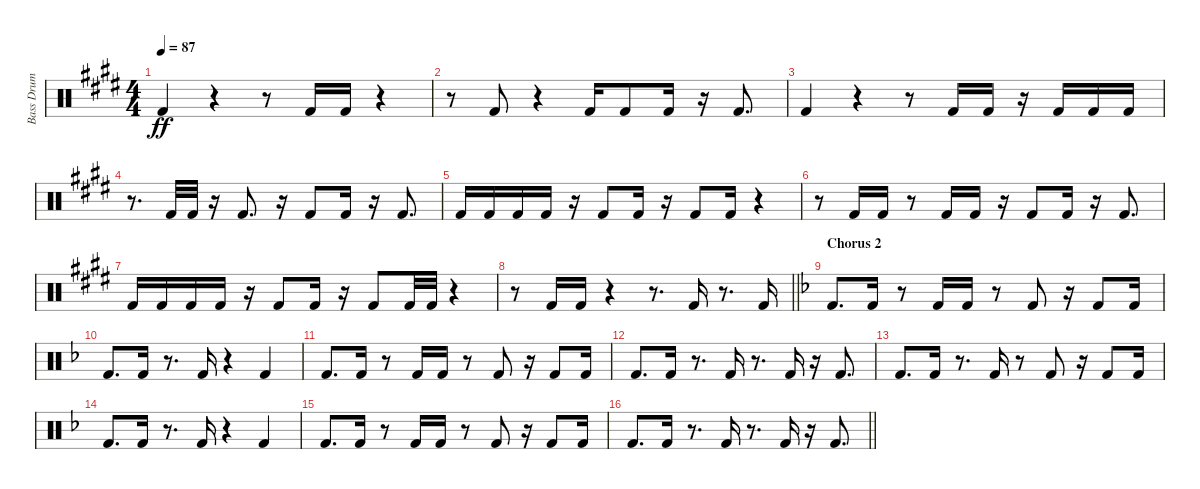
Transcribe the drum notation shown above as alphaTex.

\track ("Bass Drum" "Bass Drum") {instrument percussion}
\staff {score}
\articulation defaults
\ts (4 4)
\tempo 87
\clef neutral
\ks c#minor "Kick (hit) 2".4{dy ff}
r.4 r.8 "Kick (hit) 2".16 "Kick (hit) 2".16 r.4 |
r.8 "Kick (hit) 2".8 r.4 "Kick (hit) 2".16 "Kick (hit) 2".8 "Kick (hit) 2".16 r.16 "Kick (hit) 2".8{d} |
"Kick (hit) 2".4 r.4 r.8 "Kick (hit) 2".16 "Kick (hit) 2".16 r.16 "Kick (hit) 2".16 "Kick (hit) 2".16 "Kick (hit) 2".16 |
r.8{d} "Kick (hit) 2".32 "Kick (hit) 2".32 r.16 "Kick (hit) 2".8{d} r.16 "Kick (hit) 2".8 "Kick (hit) 2".16 r.16 "Kick (hit) 2".8{d} |
"Kick (hit) 2".16 "Kick (hit) 2".16 "Kick (hit) 2".16 "Kick (hit) 2".16 r.16 "Kick (hit) 2".8 "Kick (hit) 2".16 r.16 "Kick (hit) 2".8 "Kick (hit) 2".16 r.4 |
r.8 "Kick (hit) 2".16 "Kick (hit) 2".16 r.8 "Kick (hit) 2".16 "Kick (hit) 2".16 r.16 "Kick (hit) 2".8 "Kick (hit) 2".16 r.16 "Kick (hit) 2".8{d} |
"Kick (hit) 2".16 "Kick (hit) 2".16 "Kick (hit) 2".16 "Kick (hit) 2".16 r.16 "Kick (hit) 2".8 "Kick (hit) 2".16 r.16 "Kick (hit) 2".8 "Kick (hit) 2".32 "Kick (hit) 2".32 r.4 |
\barLineRight lightlight
r.8 "Kick (hit) 2".16 "Kick (hit) 2".16 r.4 r.8{d} "Kick (hit) 2".16 r.8{d} "Kick (hit) 2".16 |
\section ("" "Chorus 2")
\ks dminor "Kick (hit) 2".8{d} "Kick (hit) 2".16
r.8 "Kick (hit) 2".16 "Kick (hit) 2".16 r.8 "Kick (hit) 2".8 r.16 "Kick (hit) 2".8 "Kick (hit) 2".16 |
"Kick (hit) 2".8{d} "Kick (hit) 2".16 r.8{d} "Kick (hit) 2".16 r.4 "Kick (hit) 2".4 |
"Kick (hit) 2".8{d} "Kick (hit) 2".16 r.8 "Kick (hit) 2".16 "Kick (hit) 2".16 r.8 "Kick (hit) 2".8 r.16 "Kick (hit) 2".8 "Kick (hit) 2".16 |
"Kick (hit) 2".8{d} "Kick (hit) 2".16 r.8{d} "Kick (hit) 2".16 r.8{d} "Kick (hit) 2".16 r.16 "Kick (hit) 2".8{d} |
"Kick (hit) 2".8{d} "Kick (hit) 2".16 r.8{d} "Kick (hit) 2".16 r.8 "Kick (hit) 2".8 r.16 "Kick (hit) 2".8 "Kick (hit) 2".16 |
"Kick (hit) 2".8{d} "Kick (hit) 2".16 r.8{d} "Kick (hit) 2".16 r.4 "Kick (hit) 2".4 |
"Kick (hit) 2".8{d} "Kick (hit) 2".16 r.8 "Kick (hit) 2".16 "Kick (hit) 2".16 r.8 "Kick (hit) 2".8 r.16 "Kick (hit) 2".8 "Kick (hit) 2".16 |
\barLineRight lightlight "Kick (hit) 2".8{d} "Kick (hit) 2".16
r.8{d} "Kick (hit) 2".16 r.8{d} "Kick (hit) 2".16 r.16 "Kick (hit) 2".8{d}
